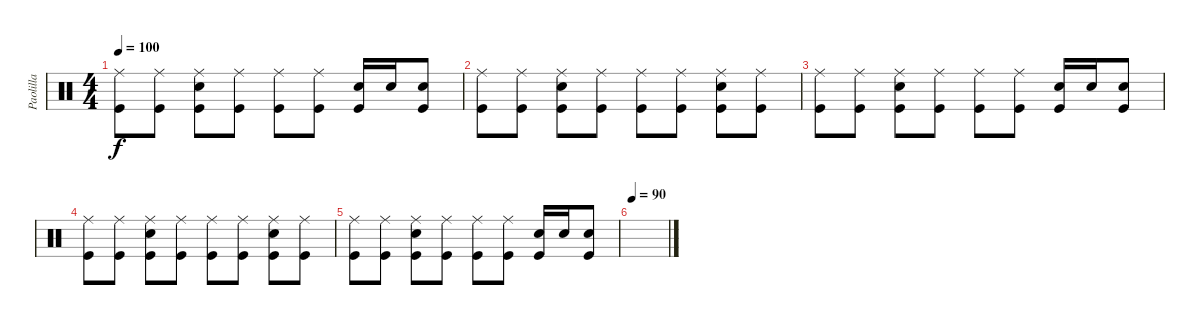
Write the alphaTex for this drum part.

\track ("Paolilla" "Paolilla") {instrument percussion}
\staff {score}
\articulation defaults
\ts (4 4)
\tempo 100
\clef neutral
\ks c
("Ride (middle)" "Kick (hit)").8{dy f} ("Ride (middle)" "Kick (hit)").8 ("Snare (hit) 2" "Ride (middle)" "Kick (hit)").8 ("Ride (middle)" "Kick (hit)").8 ("Ride (middle)" "Kick (hit)").8 ("Ride (middle)" "Kick (hit)").8 ("Snare (hit) 2" "Kick (hit)").16 "Snare (hit) 2".16 ("Snare (hit) 2" "Kick (hit)").8 |
("Ride (middle)" "Kick (hit)").8 ("Ride (middle)" "Kick (hit)").8 ("Snare (hit) 2" "Ride (middle)" "Kick (hit)").8 ("Ride (middle)" "Kick (hit)").8 ("Ride (middle)" "Kick (hit)").8 ("Ride (middle)" "Kick (hit)").8 ("Snare (hit) 2" "Ride (middle)" "Kick (hit)").8 ("Ride (middle)" "Kick (hit)").8 |
("Ride (middle)" "Kick (hit)").8 ("Ride (middle)" "Kick (hit)").8 ("Snare (hit) 2" "Ride (middle)" "Kick (hit)").8 ("Ride (middle)" "Kick (hit)").8 ("Ride (middle)" "Kick (hit)").8 ("Ride (middle)" "Kick (hit)").8 ("Snare (hit) 2" "Kick (hit)").16 "Snare (hit) 2".16 ("Snare (hit) 2" "Kick (hit)").8 |
("Ride (middle)" "Kick (hit)").8 ("Ride (middle)" "Kick (hit)").8 ("Snare (hit) 2" "Ride (middle)" "Kick (hit)").8 ("Ride (middle)" "Kick (hit)").8 ("Ride (middle)" "Kick (hit)").8 ("Ride (middle)" "Kick (hit)").8 ("Snare (hit) 2" "Ride (middle)" "Kick (hit)").8 ("Ride (middle)" "Kick (hit)").8 |
("Ride (middle)" "Kick (hit)").8 ("Ride (middle)" "Kick (hit)").8 ("Snare (hit) 2" "Ride (middle)" "Kick (hit)").8 ("Ride (middle)" "Kick (hit)").8 ("Ride (middle)" "Kick (hit)").8 ("Ride (middle)" "Kick (hit)").8 ("Snare (hit) 2" "Kick (hit)").16 "Snare (hit) 2".16 ("Snare (hit) 2" "Kick (hit)").8 |
\tempo 90
